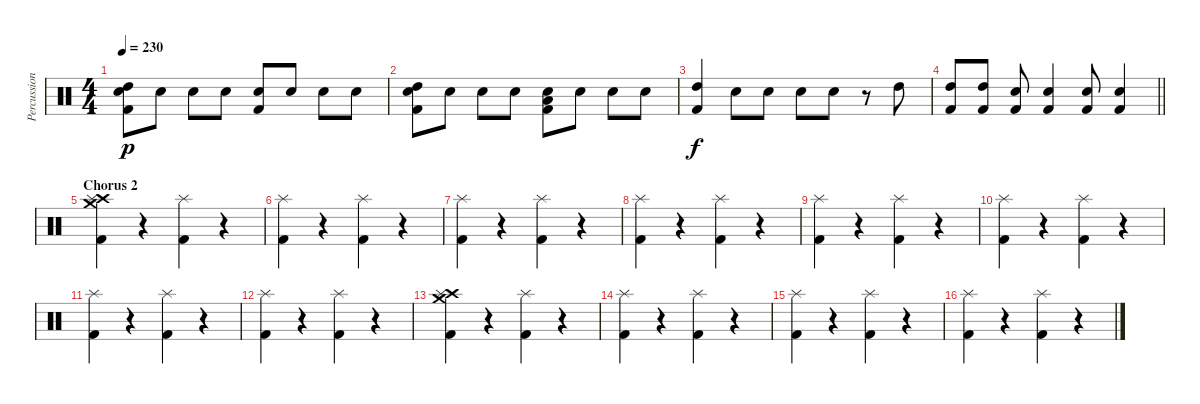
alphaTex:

\track ("Percussion" "Percussion") {instrument percussion}
\staff {score}
\articulation defaults
\ts (4 4)
\tempo 230
\clef neutral
\ks c
("Snare (hit) 2" "Kick (hit) 2" "High Tom (hit)").8{dy p} "Snare (hit) 2".8 "Snare (hit) 2".8 "Snare (hit) 2".8 ("Kick (hit) 2" "Snare (hit) 2").8 "Snare (hit) 2".8 "Snare (hit) 2".8 "Snare (hit) 2".8 |
("Snare (hit) 2" "High Tom (hit)" "Kick (hit) 2").8 "Snare (hit) 2".8 "Snare (hit) 2".8 "Snare (hit) 2".8 ("Snare (hit) 2" "Low Floor Tom (hit)" "Kick (hit) 2").8 "Snare (hit) 2".8 "Snare (hit) 2".8 "Snare (hit) 2".8 |
("Kick (hit) 2" "High Tom (hit)").4{dy f} "Snare (hit) 2".8 "Snare (hit) 2".8 "Snare (hit) 2".8 "Snare (hit) 2".8 r.8 "High Tom (hit)".8 |
\barLineRight lightlight
("High Tom (hit)" "Kick (hit) 2").8 ("High Tom (hit)" "Kick (hit) 2").8 ("Snare (hit) 2" "Kick (hit) 2").8 ("Kick (hit) 2" "Snare (hit) 2").4 ("Snare (hit) 2" "Kick (hit) 2").8 ("Snare (hit) 2" "Kick (hit) 2").4 |
\section ("" "Chorus 2")
("Crash medium (hit)" "Crash high (hit)" "Kick (hit) 2" "Splash (hit)").4 r.4 ("Kick (hit) 2" "Splash (hit)").4 r.4 |
("Kick (hit) 2" "Splash (hit)").4 r.4 ("Kick (hit) 2" "Splash (hit)").4 r.4 |
("Kick (hit) 2" "Splash (hit)").4 r.4 ("Kick (hit) 2" "Splash (hit)").4 r.4 |
("Kick (hit) 2" "Splash (hit)").4 r.4 ("Kick (hit) 2" "Splash (hit)").4 r.4 |
("Kick (hit) 2" "Splash (hit)").4 r.4 ("Kick (hit) 2" "Splash (hit)").4 r.4 |
("Kick (hit) 2" "Splash (hit)").4 r.4 ("Kick (hit) 2" "Splash (hit)").4 r.4 |
("Kick (hit) 2" "Splash (hit)").4 r.4 ("Kick (hit) 2" "Splash (hit)").4 r.4 |
("Kick (hit) 2" "Splash (hit)").4 r.4 ("Kick (hit) 2" "Splash (hit)").4 r.4 |
("Crash medium (hit)" "Crash high (hit)" "Kick (hit) 2" "Splash (hit)").4 r.4 ("Kick (hit) 2" "Splash (hit)").4 r.4 |
("Kick (hit) 2" "Splash (hit)").4 r.4 ("Kick (hit) 2" "Splash (hit)").4 r.4 |
("Kick (hit) 2" "Splash (hit)").4 r.4 ("Kick (hit) 2" "Splash (hit)").4 r.4 |
("Kick (hit) 2" "Splash (hit)").4 r.4 ("Kick (hit) 2" "Splash (hit)").4 r.4
